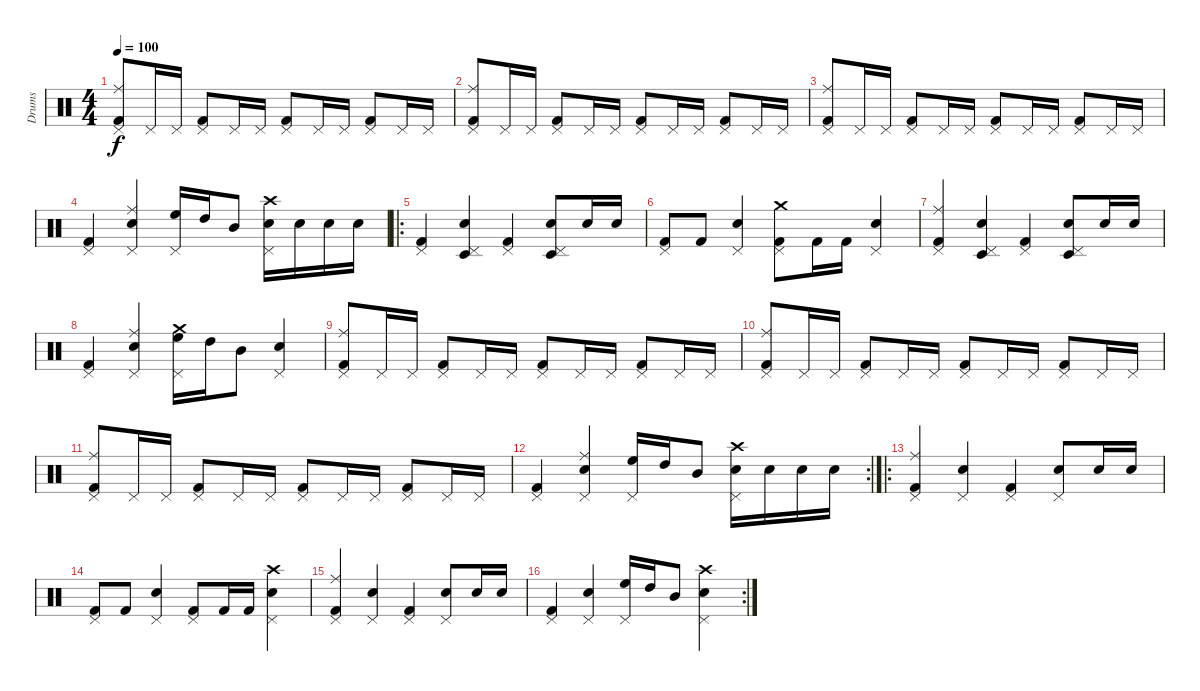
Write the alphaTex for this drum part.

\track ("Drums" "Drums") {instrument percussion}
\staff {score}
\articulation defaults
\ts (4 4)
\tempo 100
\clef neutral
\ks c
("Pedal Hi-Hat (hit)" "Ride (middle)" "Kick (hit) 2").8{dy f} "Pedal Hi-Hat (hit)".16 "Pedal Hi-Hat (hit)".16 ("Pedal Hi-Hat (hit)" "Kick (hit) 2").8 "Pedal Hi-Hat (hit)".16 "Pedal Hi-Hat (hit)".16 ("Pedal Hi-Hat (hit)" "Kick (hit) 2").8 "Pedal Hi-Hat (hit)".16 "Pedal Hi-Hat (hit)".16 ("Pedal Hi-Hat (hit)" "Kick (hit) 2").8 "Pedal Hi-Hat (hit)".16 "Pedal Hi-Hat (hit)".16 |
("Pedal Hi-Hat (hit)" "Ride (middle)" "Kick (hit) 2").8 "Pedal Hi-Hat (hit)".16 "Pedal Hi-Hat (hit)".16 ("Pedal Hi-Hat (hit)" "Kick (hit) 2").8 "Pedal Hi-Hat (hit)".16 "Pedal Hi-Hat (hit)".16 ("Pedal Hi-Hat (hit)" "Kick (hit) 2").8 "Pedal Hi-Hat (hit)".16 "Pedal Hi-Hat (hit)".16 ("Pedal Hi-Hat (hit)" "Kick (hit) 2").8 "Pedal Hi-Hat (hit)".16 "Pedal Hi-Hat (hit)".16 |
("Pedal Hi-Hat (hit)" "Ride (middle)" "Kick (hit) 2").8 "Pedal Hi-Hat (hit)".16 "Pedal Hi-Hat (hit)".16 ("Pedal Hi-Hat (hit)" "Kick (hit) 2").8 "Pedal Hi-Hat (hit)".16 "Pedal Hi-Hat (hit)".16 ("Pedal Hi-Hat (hit)" "Kick (hit) 2").8 "Pedal Hi-Hat (hit)".16 "Pedal Hi-Hat (hit)".16 ("Pedal Hi-Hat (hit)" "Kick (hit) 2").8 "Pedal Hi-Hat (hit)".16 "Pedal Hi-Hat (hit)".16 |
("Pedal Hi-Hat (hit)" "Kick (hit) 2").4 ("Pedal Hi-Hat (hit)" "Electric Snare (hit)" "Ride (middle)").4 ("Pedal Hi-Hat (hit)" "High Floor Tom (hit)").16 "High Tom (hit)".16 "Mid Tom (hit)".8 ("Crash high (hit)" "Electric Snare (hit)" "Pedal Hi-Hat (hit)").16 "Electric Snare (hit)".16 "Electric Snare (hit)".16 "Electric Snare (hit)".16 |
\ro
("Pedal Hi-Hat (hit)" "Kick (hit) 2").4 ("Pedal Hi-Hat (hit)" "Electric Snare (hit)" "Timbale low (hit)").4 ("Pedal Hi-Hat (hit)" "Kick (hit) 2").4 ("Pedal Hi-Hat (hit)" "Timbale low (hit)" "Electric Snare (hit)").8 "Electric Snare (hit)".16 "Snare (hit) 2".16 |
("Pedal Hi-Hat (hit)" "Kick (hit) 2").8 "Kick (hit) 2".8 ("Pedal Hi-Hat (hit)" "Electric Snare (hit)").4 ("Pedal Hi-Hat (hit)" "Crash medium (hit)" "Kick (hit) 2").8 "Kick (hit) 2".16 "Kick (hit) 2".16 ("Electric Snare (hit)" "Pedal Hi-Hat (hit)").4 |
("Pedal Hi-Hat (hit)" "Ride (middle)" "Kick (hit) 2").4 ("Pedal Hi-Hat (hit)" "Electric Snare (hit)" "Timbale low (hit)").4 ("Pedal Hi-Hat (hit)" "Kick (hit) 2").4 ("Pedal Hi-Hat (hit)" "Timbale low (hit)" "Electric Snare (hit)").8 "Electric Snare (hit)".16 "Electric Snare (hit)".16 |
("Pedal Hi-Hat (hit)" "Kick (hit) 2").4 ("Pedal Hi-Hat (hit)" "Electric Snare (hit)" "Ride (middle)").4 ("Pedal Hi-Hat (hit)" "High Floor Tom (hit)" "Crash medium (hit)").16 "High Tom (hit)".16 "Mid Tom (hit)".8 ("Electric Snare (hit)" "Pedal Hi-Hat (hit)").4 |
("Pedal Hi-Hat (hit)" "Ride (middle)" "Kick (hit) 2").8 "Pedal Hi-Hat (hit)".16 "Pedal Hi-Hat (hit)".16 ("Pedal Hi-Hat (hit)" "Kick (hit) 2").8 "Pedal Hi-Hat (hit)".16 "Pedal Hi-Hat (hit)".16 ("Pedal Hi-Hat (hit)" "Kick (hit) 2").8 "Pedal Hi-Hat (hit)".16 "Pedal Hi-Hat (hit)".16 ("Pedal Hi-Hat (hit)" "Kick (hit) 2").8 "Pedal Hi-Hat (hit)".16 "Pedal Hi-Hat (hit)".16 |
("Pedal Hi-Hat (hit)" "Ride (middle)" "Kick (hit) 2").8 "Pedal Hi-Hat (hit)".16 "Pedal Hi-Hat (hit)".16 ("Pedal Hi-Hat (hit)" "Kick (hit) 2").8 "Pedal Hi-Hat (hit)".16 "Pedal Hi-Hat (hit)".16 ("Pedal Hi-Hat (hit)" "Kick (hit) 2").8 "Pedal Hi-Hat (hit)".16 "Pedal Hi-Hat (hit)".16 ("Pedal Hi-Hat (hit)" "Kick (hit) 2").8 "Pedal Hi-Hat (hit)".16 "Pedal Hi-Hat (hit)".16 |
("Pedal Hi-Hat (hit)" "Ride (middle)" "Kick (hit) 2").8 "Pedal Hi-Hat (hit)".16 "Pedal Hi-Hat (hit)".16 ("Pedal Hi-Hat (hit)" "Kick (hit) 2").8 "Pedal Hi-Hat (hit)".16 "Pedal Hi-Hat (hit)".16 ("Pedal Hi-Hat (hit)" "Kick (hit) 2").8 "Pedal Hi-Hat (hit)".16 "Pedal Hi-Hat (hit)".16 ("Pedal Hi-Hat (hit)" "Kick (hit) 2").8 "Pedal Hi-Hat (hit)".16 "Pedal Hi-Hat (hit)".16 |
\rc 2
("Pedal Hi-Hat (hit)" "Kick (hit) 2").4 ("Pedal Hi-Hat (hit)" "Electric Snare (hit)" "Ride (middle)").4 ("Pedal Hi-Hat (hit)" "High Floor Tom (hit)").16 "High Tom (hit)".16 "Mid Tom (hit)".8 ("Crash high (hit)" "Electric Snare (hit)" "Pedal Hi-Hat (hit)").16 "Electric Snare (hit)".16 "Electric Snare (hit)".16 "Electric Snare (hit)".16 |
\ro
("Pedal Hi-Hat (hit)" "Ride (middle)" "Kick (hit) 2").4 ("Pedal Hi-Hat (hit)" "Electric Snare (hit)").4 ("Pedal Hi-Hat (hit)" "Kick (hit) 2").4 ("Pedal Hi-Hat (hit)" "Electric Snare (hit)").8 "Electric Snare (hit)".16 "Snare (hit) 2".16 |
("Pedal Hi-Hat (hit)" "Kick (hit) 2").8 "Kick (hit) 2".8 ("Pedal Hi-Hat (hit)" "Electric Snare (hit)").4 ("Pedal Hi-Hat (hit)" "Kick (hit) 2").8 "Kick (hit) 2".16 "Kick (hit) 2".16 ("Crash high (hit)" "Electric Snare (hit)" "Pedal Hi-Hat (hit)").4 |
("Pedal Hi-Hat (hit)" "Ride (middle)" "Kick (hit) 2").4 ("Pedal Hi-Hat (hit)" "Electric Snare (hit)").4 ("Pedal Hi-Hat (hit)" "Kick (hit) 2").4 ("Pedal Hi-Hat (hit)" "Electric Snare (hit)").8 "Electric Snare (hit)".16 "Electric Snare (hit)".16 |
\rc 2
("Pedal Hi-Hat (hit)" "Kick (hit) 2").4 ("Pedal Hi-Hat (hit)" "Electric Snare (hit)").4 ("Pedal Hi-Hat (hit)" "High Floor Tom (hit)").16 "High Tom (hit)".16 "Mid Tom (hit)".8 ("Crash high (hit)" "Electric Snare (hit)" "Pedal Hi-Hat (hit)").4
